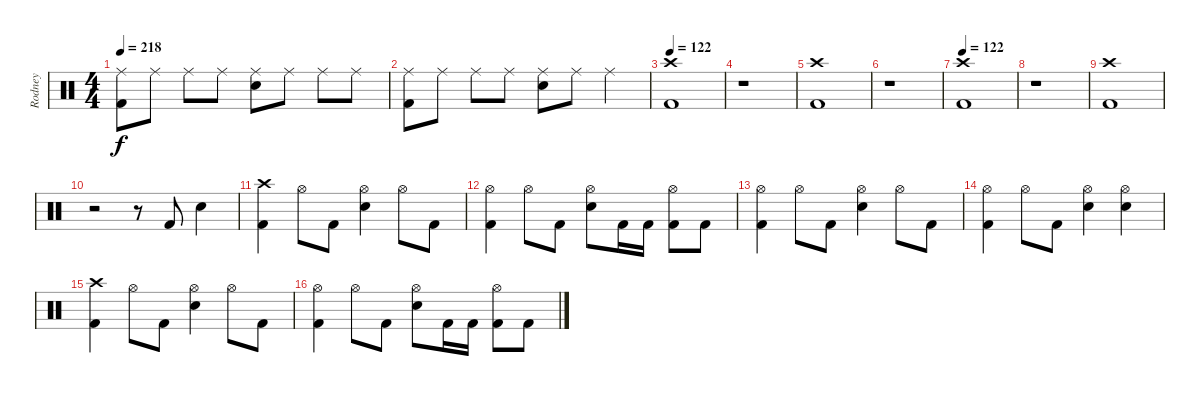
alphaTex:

\track ("Rodney" "Rodney") {instrument percussion}
\staff {score}
\articulation defaults
\ts (4 4)
\tempo 218
\clef neutral
\ks c
("Ride (middle)" "Kick (hit) 2").8{dy f} "Ride (middle)".8 "Ride (middle)".8 "Ride (middle)".8 ("Ride (middle)" "Snare (hit) 2").8 "Ride (middle)".8 "Ride (middle)".8 "Ride (middle)".8 |
("Ride (middle)" "Kick (hit) 2").8 "Ride (middle)".8 "Ride (middle)".8 "Ride (middle)".8 ("Ride (middle)" "Snare (hit) 2").8 "Ride (middle)".8 "Ride (middle)".4 |
\tempo 122
("Crash high (hit)" "Kick (hit) 2").1 |
r.1 |
("Crash high (hit)" "Kick (hit) 2").1 |
r.1 |
\tempo 122
("Crash high (hit)" "Kick (hit) 2").1 |
r.1 |
("Crash high (hit)" "Kick (hit) 2").1 |
r.2 r.8 "Kick (hit) 2".8 "Snare (hit) 2".4 |
("Crash high (hit)" "Kick (hit) 2").4 "Hi-Hat (open)".8 "Kick (hit) 2".8 ("Hi-Hat (open)" "Snare (hit) 2").4 "Hi-Hat (open)".8 "Kick (hit) 2".8 |
("Hi-Hat (open)" "Kick (hit) 2").4 "Hi-Hat (open)".8 "Kick (hit) 2".8 ("Hi-Hat (open)" "Snare (hit) 2").8 "Kick (hit) 2".16 "Kick (hit) 2".16 ("Hi-Hat (open)" "Kick (hit) 2").8 "Kick (hit) 2".8 |
("Hi-Hat (open)" "Kick (hit) 2").4 "Hi-Hat (open)".8 "Kick (hit) 2".8 ("Hi-Hat (open)" "Snare (hit) 2").4 "Hi-Hat (open)".8 "Kick (hit) 2".8 |
("Hi-Hat (open)" "Kick (hit) 2").4 "Hi-Hat (open)".8 "Kick (hit) 2".8 ("Hi-Hat (open)" "Snare (hit) 2").4 ("Hi-Hat (open)" "Snare (hit) 2").4 |
("Crash high (hit)" "Kick (hit) 2").4 "Hi-Hat (open)".8 "Kick (hit) 2".8 ("Hi-Hat (open)" "Snare (hit) 2").4 "Hi-Hat (open)".8 "Kick (hit) 2".8 |
("Hi-Hat (open)" "Kick (hit) 2").4 "Hi-Hat (open)".8 "Kick (hit) 2".8 ("Hi-Hat (open)" "Snare (hit) 2").8 "Kick (hit) 2".16 "Kick (hit) 2".16 ("Hi-Hat (open)" "Kick (hit) 2").8 "Kick (hit) 2".8
